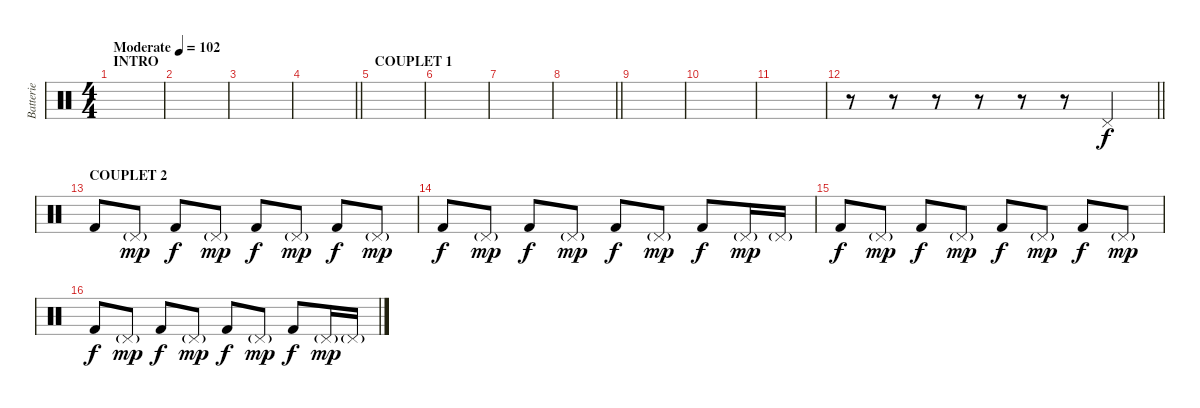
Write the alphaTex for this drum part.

\track ("Batterie" "Batterie") {instrument percussion}
\staff {score}
\articulation defaults
\ts (4 4)
\section ("" "INTRO")
\tempo (102 "Moderate")
\clef neutral
\ks c
|
|
|
\barLineRight lightlight
|
\section ("" "COUPLET 1")
|
|
|
\barLineRight lightlight
|
|
|
|
\barLineRight lightlight
r.8 r.8 r.8 r.8 r.8 r.8 "Pedal Hi-Hat (hit)".4 |
\section ("" "COUPLET 2")
"Kick (hit) 2".8 "Pedal Hi-Hat (hit)"{g}.8{dy mp} "Kick (hit) 2".8{dy f} "Pedal Hi-Hat (hit)"{g}.8{dy mp} "Kick (hit) 2".8{dy f} "Pedal Hi-Hat (hit)"{g}.8{dy mp} "Kick (hit) 2".8{dy f} "Pedal Hi-Hat (hit)"{g}.8{dy mp} |
"Kick (hit) 2".8{dy f} "Pedal Hi-Hat (hit)"{g}.8{dy mp} "Kick (hit) 2".8{dy f} "Pedal Hi-Hat (hit)"{g}.8{dy mp} "Kick (hit) 2".8{dy f} "Pedal Hi-Hat (hit)"{g}.8{dy mp} "Kick (hit) 2".8{dy f} "Pedal Hi-Hat (hit)"{g}.16{dy mp} "Pedal Hi-Hat (hit)"{g}.16 |
"Kick (hit) 2".8{dy f} "Pedal Hi-Hat (hit)"{g}.8{dy mp} "Kick (hit) 2".8{dy f} "Pedal Hi-Hat (hit)"{g}.8{dy mp} "Kick (hit) 2".8{dy f} "Pedal Hi-Hat (hit)"{g}.8{dy mp} "Kick (hit) 2".8{dy f} "Pedal Hi-Hat (hit)"{g}.8{dy mp} |
"Kick (hit) 2".8{dy f} "Pedal Hi-Hat (hit)"{g}.8{dy mp} "Kick (hit) 2".8{dy f} "Pedal Hi-Hat (hit)"{g}.8{dy mp} "Kick (hit) 2".8{dy f} "Pedal Hi-Hat (hit)"{g}.8{dy mp} "Kick (hit) 2".8{dy f} "Pedal Hi-Hat (hit)"{g}.16{dy mp} "Pedal Hi-Hat (hit)"{g}.16
